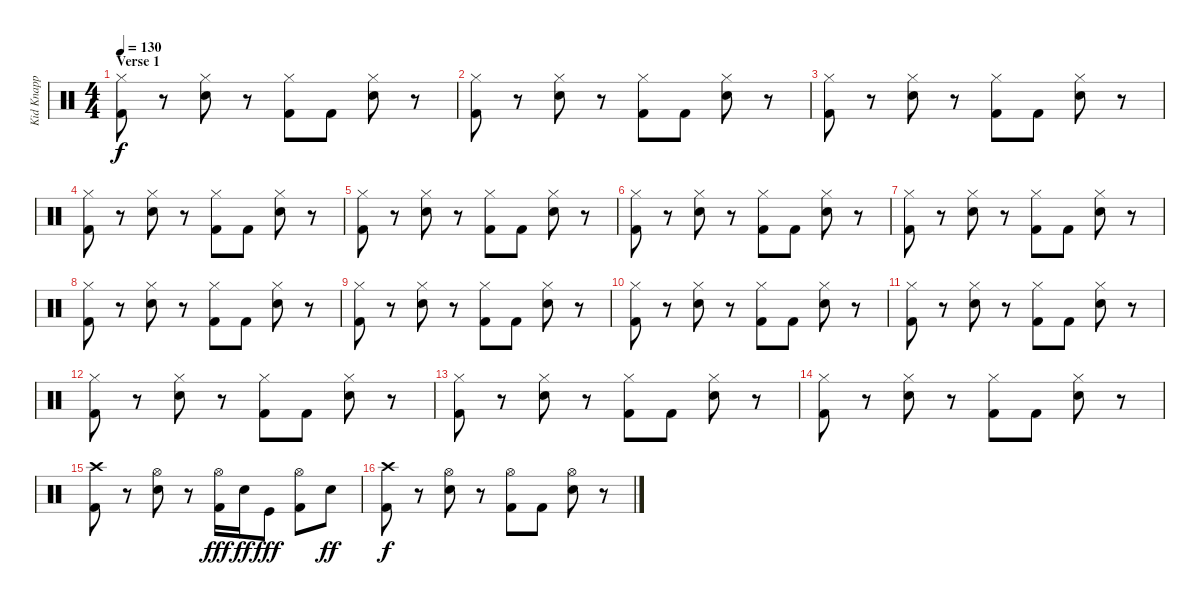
\track ("Kid Knapp (Drums)" "Kid Knapp ") {instrument percussion}
\staff {score}
\articulation defaults
\ts (4 4)
\section ("" "Verse 1")
\tempo 130
\clef neutral
\ks c
("Hi-Hat (closed)" "Kick (hit) 2").8{dy f} r.8 ("Hi-Hat (closed)" "Electric Snare (hit)").8 r.8 ("Hi-Hat (closed)" "Kick (hit) 2").8 "Kick (hit) 2".8 ("Hi-Hat (closed)" "Electric Snare (hit)").8 r.8 |
("Hi-Hat (closed)" "Kick (hit) 2").8 r.8 ("Hi-Hat (closed)" "Electric Snare (hit)").8 r.8 ("Hi-Hat (closed)" "Kick (hit) 2").8 "Kick (hit) 2".8 ("Hi-Hat (closed)" "Electric Snare (hit)").8 r.8 |
("Hi-Hat (closed)" "Kick (hit) 2").8 r.8 ("Hi-Hat (closed)" "Electric Snare (hit)").8 r.8 ("Hi-Hat (closed)" "Kick (hit) 2").8 "Kick (hit) 2".8 ("Hi-Hat (closed)" "Electric Snare (hit)").8 r.8 |
("Hi-Hat (closed)" "Kick (hit) 2").8 r.8 ("Hi-Hat (closed)" "Electric Snare (hit)").8 r.8 ("Hi-Hat (closed)" "Kick (hit) 2").8 "Kick (hit) 2".8 ("Hi-Hat (closed)" "Electric Snare (hit)").8 r.8 |
("Hi-Hat (closed)" "Kick (hit) 2").8 r.8 ("Hi-Hat (closed)" "Electric Snare (hit)").8 r.8 ("Hi-Hat (closed)" "Kick (hit) 2").8 "Kick (hit) 2".8 ("Hi-Hat (closed)" "Electric Snare (hit)").8 r.8 |
("Hi-Hat (closed)" "Kick (hit) 2").8 r.8 ("Hi-Hat (closed)" "Electric Snare (hit)").8 r.8 ("Hi-Hat (closed)" "Kick (hit) 2").8 "Kick (hit) 2".8 ("Hi-Hat (closed)" "Electric Snare (hit)").8 r.8 |
("Hi-Hat (closed)" "Kick (hit) 2").8 r.8 ("Hi-Hat (closed)" "Electric Snare (hit)").8 r.8 ("Hi-Hat (closed)" "Kick (hit) 2").8 "Kick (hit) 2".8 ("Hi-Hat (closed)" "Electric Snare (hit)").8 r.8 |
("Hi-Hat (closed)" "Kick (hit) 2").8 r.8 ("Hi-Hat (closed)" "Electric Snare (hit)").8 r.8 ("Hi-Hat (closed)" "Kick (hit) 2").8 "Kick (hit) 2".8 ("Hi-Hat (closed)" "Electric Snare (hit)").8 r.8 |
("Hi-Hat (closed)" "Kick (hit) 2").8 r.8 ("Hi-Hat (closed)" "Electric Snare (hit)").8 r.8 ("Hi-Hat (closed)" "Kick (hit) 2").8 "Kick (hit) 2".8 ("Hi-Hat (closed)" "Electric Snare (hit)").8 r.8 |
("Hi-Hat (closed)" "Kick (hit) 2").8 r.8 ("Hi-Hat (closed)" "Electric Snare (hit)").8 r.8 ("Hi-Hat (closed)" "Kick (hit) 2").8 "Kick (hit) 2".8 ("Hi-Hat (closed)" "Electric Snare (hit)").8 r.8 |
("Hi-Hat (closed)" "Kick (hit) 2").8 r.8 ("Hi-Hat (closed)" "Electric Snare (hit)").8 r.8 ("Hi-Hat (closed)" "Kick (hit) 2").8 "Kick (hit) 2".8 ("Hi-Hat (closed)" "Electric Snare (hit)").8 r.8 |
("Hi-Hat (closed)" "Kick (hit) 2").8 r.8 ("Hi-Hat (closed)" "Electric Snare (hit)").8 r.8 ("Hi-Hat (closed)" "Kick (hit) 2").8 "Kick (hit) 2".8 ("Hi-Hat (closed)" "Electric Snare (hit)").8 r.8 |
("Hi-Hat (closed)" "Kick (hit) 2").8 r.8 ("Hi-Hat (closed)" "Electric Snare (hit)").8 r.8 ("Hi-Hat (closed)" "Kick (hit) 2").8 "Kick (hit) 2".8 ("Hi-Hat (closed)" "Electric Snare (hit)").8 r.8 |
("Hi-Hat (closed)" "Kick (hit) 2").8 r.8 ("Hi-Hat (closed)" "Electric Snare (hit)").8 r.8 ("Hi-Hat (closed)" "Kick (hit) 2").8 "Kick (hit) 2".8 ("Hi-Hat (closed)" "Electric Snare (hit)").8 r.8 |
("Crash high (hit)" "Kick (hit) 2").8 r.8 ("Hi-Hat (open)" "Electric Snare (hit)").8 r.8 ("Hi-Hat (open)" "Kick (hit) 2").16{dy fff} "Electric Snare (hit)".16{dy ff} "Kick (hit)".8{dy fff} ("Hi-Hat (open)" "Kick (hit) 2").8 "Electric Snare (hit)".8{dy ff} |
("Crash high (hit)" "Kick (hit) 2").8{dy f} r.8 ("Hi-Hat (open)" "Electric Snare (hit)").8 r.8 ("Hi-Hat (open)" "Kick (hit) 2").8 "Kick (hit) 2".8 ("Hi-Hat (open)" "Electric Snare (hit)").8 r.8
